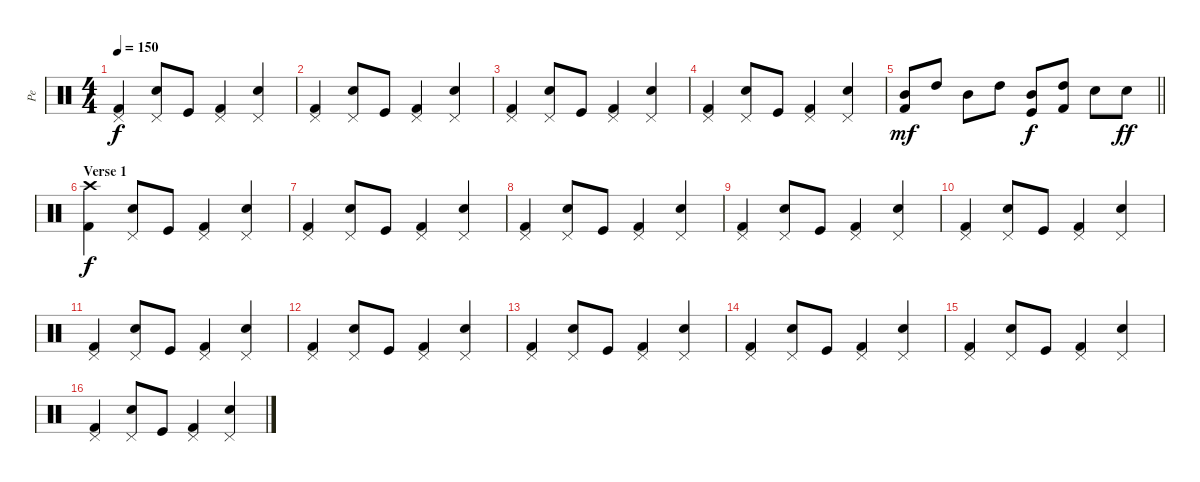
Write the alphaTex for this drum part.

\track ("Pe" "Pe") {instrument percussion}
\staff {score}
\articulation defaults
\ts (4 4)
\tempo 150
\clef neutral
\ks c
("Kick (hit) 2" "Pedal Hi-Hat (hit)").4{dy f} ("Electric Snare (hit)" "Pedal Hi-Hat (hit)").8 "Kick (hit)".8 ("Kick (hit) 2" "Pedal Hi-Hat (hit)").4 ("Electric Snare (hit)" "Pedal Hi-Hat (hit)").4 |
("Kick (hit) 2" "Pedal Hi-Hat (hit)").4 ("Electric Snare (hit)" "Pedal Hi-Hat (hit)").8 "Kick (hit)".8 ("Kick (hit) 2" "Pedal Hi-Hat (hit)").4 ("Electric Snare (hit)" "Pedal Hi-Hat (hit)").4 |
("Kick (hit) 2" "Pedal Hi-Hat (hit)").4 ("Electric Snare (hit)" "Pedal Hi-Hat (hit)").8 "Kick (hit)".8 ("Kick (hit) 2" "Pedal Hi-Hat (hit)").4 ("Electric Snare (hit)" "Pedal Hi-Hat (hit)").4 |
("Kick (hit) 2" "Pedal Hi-Hat (hit)").4 ("Electric Snare (hit)" "Pedal Hi-Hat (hit)").8 "Kick (hit)".8 ("Kick (hit) 2" "Pedal Hi-Hat (hit)").4 ("Electric Snare (hit)" "Pedal Hi-Hat (hit)").4 |
\barLineRight lightlight
("Kick (hit) 2" "Mid Tom (hit)").8{dy mf} "High Tom (hit)".8 "Mid Tom (hit)".8 "High Tom (hit)".8 ("Kick (hit)" "Mid Tom (hit)").8{dy f} ("Kick (hit) 2" "High Tom (hit)").8 "Electric Snare (hit)".8 "Electric Snare (hit)".8{dy ff} |
\section ("" "Verse 1")
("Kick (hit) 2" "Crash high (hit)").4{dy f} ("Electric Snare (hit)" "Pedal Hi-Hat (hit)").8 "Kick (hit)".8 ("Kick (hit) 2" "Pedal Hi-Hat (hit)").4 ("Electric Snare (hit)" "Pedal Hi-Hat (hit)").4 |
("Kick (hit) 2" "Pedal Hi-Hat (hit)").4 ("Electric Snare (hit)" "Pedal Hi-Hat (hit)").8 "Kick (hit)".8 ("Kick (hit) 2" "Pedal Hi-Hat (hit)").4 ("Electric Snare (hit)" "Pedal Hi-Hat (hit)").4 |
("Kick (hit) 2" "Pedal Hi-Hat (hit)").4 ("Electric Snare (hit)" "Pedal Hi-Hat (hit)").8 "Kick (hit)".8 ("Kick (hit) 2" "Pedal Hi-Hat (hit)").4 ("Electric Snare (hit)" "Pedal Hi-Hat (hit)").4 |
("Kick (hit) 2" "Pedal Hi-Hat (hit)").4 ("Electric Snare (hit)" "Pedal Hi-Hat (hit)").8 "Kick (hit)".8 ("Kick (hit) 2" "Pedal Hi-Hat (hit)").4 ("Electric Snare (hit)" "Pedal Hi-Hat (hit)").4 |
("Kick (hit) 2" "Pedal Hi-Hat (hit)").4 ("Electric Snare (hit)" "Pedal Hi-Hat (hit)").8 "Kick (hit)".8 ("Kick (hit) 2" "Pedal Hi-Hat (hit)").4 ("Electric Snare (hit)" "Pedal Hi-Hat (hit)").4 |
("Kick (hit) 2" "Pedal Hi-Hat (hit)").4 ("Electric Snare (hit)" "Pedal Hi-Hat (hit)").8 "Kick (hit)".8 ("Kick (hit) 2" "Pedal Hi-Hat (hit)").4 ("Electric Snare (hit)" "Pedal Hi-Hat (hit)").4 |
("Kick (hit) 2" "Pedal Hi-Hat (hit)").4 ("Electric Snare (hit)" "Pedal Hi-Hat (hit)").8 "Kick (hit)".8 ("Kick (hit) 2" "Pedal Hi-Hat (hit)").4 ("Electric Snare (hit)" "Pedal Hi-Hat (hit)").4 |
("Kick (hit) 2" "Pedal Hi-Hat (hit)").4 ("Electric Snare (hit)" "Pedal Hi-Hat (hit)").8 "Kick (hit)".8 ("Kick (hit) 2" "Pedal Hi-Hat (hit)").4 ("Electric Snare (hit)" "Pedal Hi-Hat (hit)").4 |
("Kick (hit) 2" "Pedal Hi-Hat (hit)").4 ("Electric Snare (hit)" "Pedal Hi-Hat (hit)").8 "Kick (hit)".8 ("Kick (hit) 2" "Pedal Hi-Hat (hit)").4 ("Electric Snare (hit)" "Pedal Hi-Hat (hit)").4 |
("Kick (hit) 2" "Pedal Hi-Hat (hit)").4 ("Electric Snare (hit)" "Pedal Hi-Hat (hit)").8 "Kick (hit)".8 ("Kick (hit) 2" "Pedal Hi-Hat (hit)").4 ("Electric Snare (hit)" "Pedal Hi-Hat (hit)").4 |
("Kick (hit) 2" "Pedal Hi-Hat (hit)").4 ("Electric Snare (hit)" "Pedal Hi-Hat (hit)").8 "Kick (hit)".8 ("Kick (hit) 2" "Pedal Hi-Hat (hit)").4 ("Electric Snare (hit)" "Pedal Hi-Hat (hit)").4
